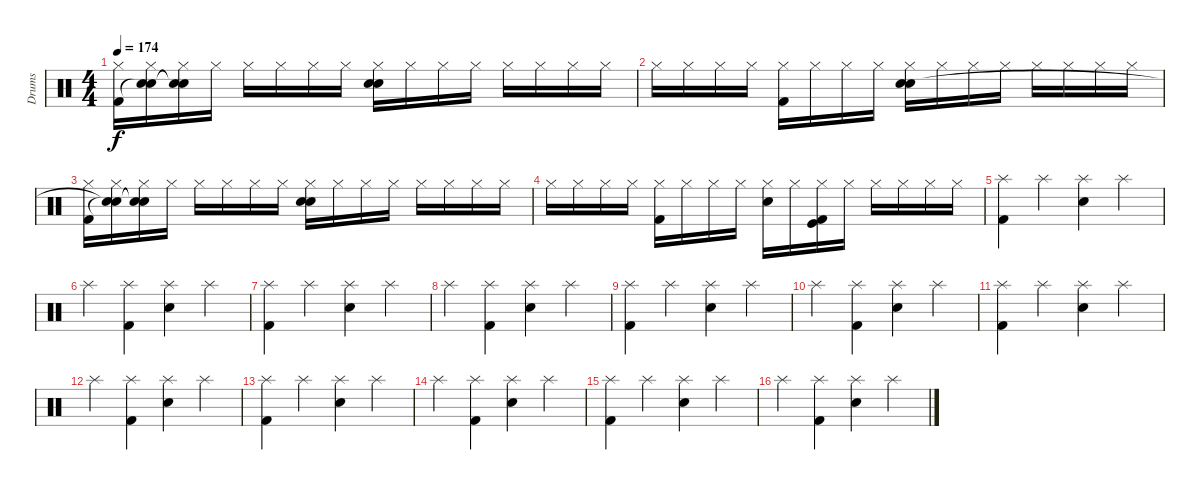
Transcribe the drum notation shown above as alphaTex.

\track ("Drums" "Drums") {instrument percussion}
\staff {score}
\articulation defaults
\ts (4 4)
\tempo 174
\clef neutral
\ks c
("Hi-Hat (closed)" "Kick (hit) 2").16{dy f} ("Hi-Hat (closed)" "Snare (hit)"{t} "Snare (hit)"{t}).16 ("Hi-Hat (closed)" "Snare (hit)"{t} "Snare (hit)"{t}).16 "Hi-Hat (closed)".16 "Hi-Hat (closed)".16 "Hi-Hat (closed)".16 "Hi-Hat (closed)".16 "Hi-Hat (closed)".16 ("Hi-Hat (closed)" "Electric Snare (hit)" "Snare (hit) 2").16 "Hi-Hat (closed)".16 "Hi-Hat (closed)".16 "Hi-Hat (closed)".16 "Hi-Hat (closed)".16 "Hi-Hat (closed)".16 "Hi-Hat (closed)".16 "Hi-Hat (closed)".16 |
"Hi-Hat (closed)".16 "Hi-Hat (closed)".16 "Hi-Hat (closed)".16 "Hi-Hat (closed)".16 ("Hi-Hat (closed)" "Kick (hit) 2").16 "Hi-Hat (closed)".16 "Hi-Hat (closed)".16 "Hi-Hat (closed)".16 ("Hi-Hat (closed)" "Electric Snare (hit)" "Snare (hit) 2").16 "Hi-Hat (closed)".16 "Hi-Hat (closed)".16 "Hi-Hat (closed)".16 "Hi-Hat (closed)".16 "Hi-Hat (closed)".16 "Hi-Hat (closed)".16 "Hi-Hat (closed)".16 |
("Hi-Hat (closed)" "Kick (hit) 2").16 ("Hi-Hat (closed)" "Snare (hit)"{t} "Snare (hit)"{t}).16 ("Hi-Hat (closed)" "Snare (hit)"{t} "Snare (hit)"{t}).16 "Hi-Hat (closed)".16 "Hi-Hat (closed)".16 "Hi-Hat (closed)".16 "Hi-Hat (closed)".16 "Hi-Hat (closed)".16 ("Hi-Hat (closed)" "Electric Snare (hit)" "Snare (hit) 2").16 "Hi-Hat (closed)".16 "Hi-Hat (closed)".16 "Hi-Hat (closed)".16 "Hi-Hat (closed)".16 "Hi-Hat (closed)".16 "Hi-Hat (closed)".16 "Hi-Hat (closed)".16 |
"Hi-Hat (closed)".16 "Hi-Hat (closed)".16 "Hi-Hat (closed)".16 "Hi-Hat (closed)".16 ("Hi-Hat (closed)" "Kick (hit) 2").16 "Hi-Hat (closed)".16 "Hi-Hat (closed)".16 "Hi-Hat (closed)".16 ("Hi-Hat (closed)" "Electric Snare (hit)").16 "Hi-Hat (closed)".16 ("Hi-Hat (closed)" "Kick (hit) 2" "Kick (hit)").16 "Hi-Hat (closed)".16 "Hi-Hat (closed)".16 "Hi-Hat (closed)".16 "Hi-Hat (closed)".16 "Hi-Hat (closed)".16 |
("Splash (hit)" "Kick (hit) 2").4 "Splash (hit)".4 ("Splash (hit)" "Snare (hit) 2").4 "Splash (hit)".4 |
"Splash (hit)".4 ("Splash (hit)" "Kick (hit) 2").4 ("Splash (hit)" "Snare (hit) 2").4 "Splash (hit)".4 |
("Splash (hit)" "Kick (hit) 2").4 "Splash (hit)".4 ("Splash (hit)" "Snare (hit) 2").4 "Splash (hit)".4 |
"Splash (hit)".4 ("Splash (hit)" "Kick (hit) 2").4 ("Splash (hit)" "Snare (hit) 2").4 "Splash (hit)".4 |
("Splash (hit)" "Kick (hit) 2").4 "Splash (hit)".4 ("Splash (hit)" "Snare (hit) 2").4 "Splash (hit)".4 |
"Splash (hit)".4 ("Splash (hit)" "Kick (hit) 2").4 ("Splash (hit)" "Snare (hit) 2").4 "Splash (hit)".4 |
("Splash (hit)" "Kick (hit) 2").4 "Splash (hit)".4 ("Splash (hit)" "Snare (hit) 2").4 "Splash (hit)".4 |
"Splash (hit)".4 ("Splash (hit)" "Kick (hit) 2").4 ("Splash (hit)" "Snare (hit) 2").4 "Splash (hit)".4 |
("Splash (hit)" "Kick (hit) 2").4 "Splash (hit)".4 ("Splash (hit)" "Snare (hit) 2").4 "Splash (hit)".4 |
"Splash (hit)".4 ("Splash (hit)" "Kick (hit) 2").4 ("Splash (hit)" "Snare (hit) 2").4 "Splash (hit)".4 |
("Splash (hit)" "Kick (hit) 2").4 "Splash (hit)".4 ("Splash (hit)" "Snare (hit) 2").4 "Splash (hit)".4 |
"Splash (hit)".4 ("Splash (hit)" "Kick (hit) 2").4 ("Splash (hit)" "Snare (hit) 2").4 "Splash (hit)".4
